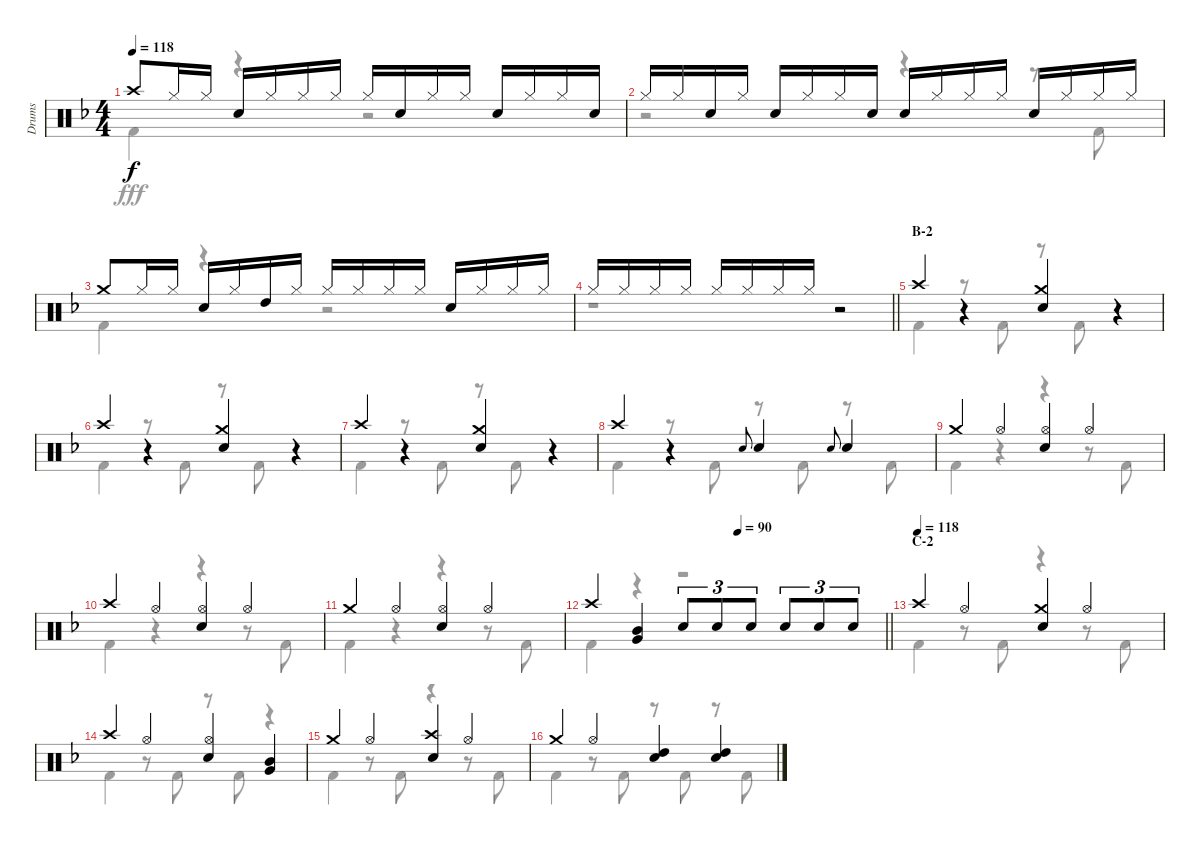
\track ("Drums" "Drums") {instrument percussion}
\staff {score}
\articulation defaults
\voice
\ts (4 4)
\tempo 118
\clef neutral
\ks f "Crash high (hit)".8{dy f} "Hi-Hat (closed)".16 "Hi-Hat (closed)".16 "Electric Snare (hit)".16 "Hi-Hat (closed)".16 "Hi-Hat (closed)".16 "Hi-Hat (closed)".16 "Hi-Hat (closed)".16 "Electric Snare (hit)".16 "Hi-Hat (closed)".16 "Hi-Hat (closed)".16 "Electric Snare (hit)".16 "Hi-Hat (closed)".16 "Hi-Hat (closed)".16 "Electric Snare (hit)".16
|
"Hi-Hat (closed)".16 "Hi-Hat (closed)".16 "Electric Snare (hit)".16 "Hi-Hat (closed)".16 "Electric Snare (hit)".16 "Hi-Hat (closed)".16 "Hi-Hat (closed)".16 "Electric Snare (hit)".16 "Electric Snare (hit)".16 "Hi-Hat (closed)".16 "Hi-Hat (closed)".16 "Hi-Hat (closed)".16 "Electric Snare (hit)".16 "Hi-Hat (closed)".16 "Hi-Hat (closed)".16 "Hi-Hat (closed)".16 |
"Crash medium (hit)".8 "Hi-Hat (closed)".16 "Hi-Hat (closed)".16 "Electric Snare (hit)".16 "Hi-Hat (closed)".16 "High Tom (hit)".16 "Hi-Hat (closed)".16 "Hi-Hat (closed)".16 "Hi-Hat (closed)".16 "Hi-Hat (closed)".16 "Hi-Hat (closed)".16 "Electric Snare (hit)".16 "Hi-Hat (closed)".16 "Hi-Hat (closed)".16 "Hi-Hat (closed)".16 |
\barLineRight lightlight "Hi-Hat (closed)".16 "Hi-Hat (closed)".16 "Hi-Hat (closed)".16 "Hi-Hat (closed)".16 "Hi-Hat (closed)".16 "Hi-Hat (closed)".16 "Hi-Hat (closed)".16 "Hi-Hat (closed)".16
r.2 |
\section ("" "B-2")
"Crash high (hit)".4 r.4 ("Crash medium (hit)" "Snare (hit) 2").4 r.4 |
"Crash high (hit)".4 r.4 ("Crash medium (hit)" "Snare (hit) 2").4 r.4 |
"Crash high (hit)".4 r.4 ("Crash medium (hit)" "Snare (hit) 2").4 r.4 |
"Crash high (hit)".4 r.4 "Snare (hit) 2".8{gr onbeat} "Snare (hit) 2".4 "Snare (hit) 2".8{gr onbeat} "Snare (hit) 2".4 |
"Crash medium (hit)".4 "Hi-Hat (open)".4 ("Hi-Hat (open)" "Snare (hit) 2").4 "Hi-Hat (open)".4 |
"Crash high (hit)".4 "Hi-Hat (open)".4 ("Hi-Hat (open)" "Snare (hit) 2").4 "Hi-Hat (open)".4 |
"Crash medium (hit)".4 "Hi-Hat (open)".4 ("Hi-Hat (open)" "Snare (hit) 2").4 "Hi-Hat (open)".4 |
\tempo (90 0.5)
\barLineRight lightlight "Crash high (hit)".4
("Mid Tom (hit)" "Very Low Tom (hit)").4 "Snare (hit) 2".8{tu (3 2)} "Snare (hit) 2".8{tu (3 2)} "Snare (hit) 2".8{tu (3 2)} "Snare (hit) 2".8{tu (3 2)} "Snare (hit) 2".8{tu (3 2)} "Snare (hit) 2".8{tu (3 2)} |
\section ("" "C-2")
\tempo (118)
"Crash high (hit)".4 "Hi-Hat (open)".4 ("Crash medium (hit)" "Snare (hit) 2").4 "Hi-Hat (open)".4 |
"Crash high (hit)".4 "Hi-Hat (open)".4 ("Hi-Hat (open)" "Snare (hit) 2").4 ("Mid Tom (hit)" "Very Low Tom (hit)").4 |
"Crash medium (hit)".4 "Hi-Hat (open)".4 ("Crash high (hit)" "Snare (hit) 2").4 "Hi-Hat (open)".4 |
"Crash medium (hit)".4 "Hi-Hat (open)".4 ("High Tom (hit)" "Snare (hit) 2").4 ("High Tom (hit)" "Snare (hit) 2").4
\voice
\clef neutral
\ottava regular
\simile none
\ks f "Kick (hit) 2".4{dy fff}
r.4 r.2 |
r.2 r.4 r.8 "Kick (hit) 2".8 |
"Kick (hit) 2".4 r.4 r.2 |
\barLineRight lightlight
r.1 |
"Kick (hit) 2".4 r.8 "Kick (hit) 2".8 r.8 "Kick (hit) 2".8 r.4 |
"Kick (hit) 2".4 r.8 "Kick (hit) 2".8 r.8 "Kick (hit) 2".8 r.4 |
"Kick (hit) 2".4 r.8 "Kick (hit) 2".8 r.8 "Kick (hit) 2".8 r.4 |
"Kick (hit) 2".4 r.8 "Kick (hit) 2".8 r.8 "Kick (hit) 2".8 r.8 "Kick (hit) 2".8 |
"Kick (hit) 2".4 r.4 r.4 r.8 "Kick (hit) 2".8 |
"Kick (hit) 2".4 r.4 r.4 r.8 "Kick (hit) 2".8 |
"Kick (hit) 2".4 r.4 r.4 r.8 "Kick (hit) 2".8 |
\barLineRight lightlight "Kick (hit) 2".4
r.4 r.2 |
"Kick (hit) 2".4 r.8 "Kick (hit) 2".8 r.4 r.8 "Kick (hit) 2".8 |
"Kick (hit) 2".4 r.8 "Kick (hit) 2".8 r.8 "Kick (hit) 2".8 r.4 |
"Kick (hit) 2".4 r.8 "Kick (hit) 2".8 r.4 r.8 "Kick (hit) 2".8 |
"Kick (hit) 2".4 r.8 "Kick (hit) 2".8 r.8 "Kick (hit) 2".8 r.8 "Kick (hit) 2".8
